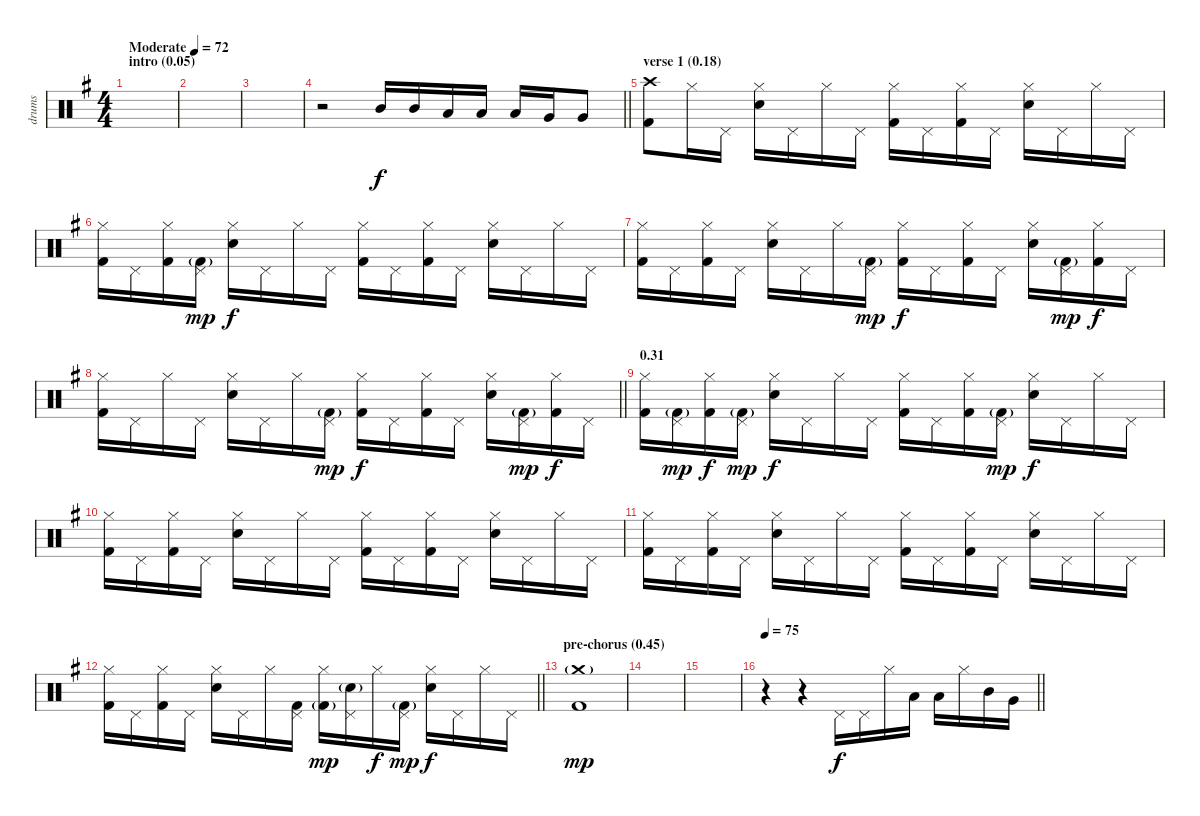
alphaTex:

\track ("drums" "drums") {instrument percussion}
\staff {score}
\articulation defaults
\ts (4 4)
\section ("" "intro (0.05)")
\tempo (72 "Moderate")
\clef neutral
\ks g
|
|
|
\barLineRight lightlight
r.2 "Mid Tom (hit)".16 "Mid Tom (hit)".16 "Low Tom (hit)".16 "Low Tom (hit)".16 "Low Tom (hit)".16 "Very Low Tom (hit)".16 "Very Low Tom (hit)".8 |
\section ("" "verse 1 (0.18)")
("Crash high (hit)" "Kick (hit) 2").8 "Hi-Hat (closed)".16 "Pedal Hi-Hat (hit)".16 ("Hi-Hat (closed)" "Electric Snare (hit)").16 "Pedal Hi-Hat (hit)".16 "Hi-Hat (closed)".16 "Pedal Hi-Hat (hit)".16 ("Hi-Hat (closed)" "Kick (hit) 2").16 "Pedal Hi-Hat (hit)".16 ("Hi-Hat (closed)" "Kick (hit) 2").16 "Pedal Hi-Hat (hit)".16 ("Hi-Hat (closed)" "Electric Snare (hit)").16 "Pedal Hi-Hat (hit)".16 "Hi-Hat (closed)".16 "Pedal Hi-Hat (hit)".16 |
("Hi-Hat (closed)" "Kick (hit) 2").16 "Pedal Hi-Hat (hit)".16 ("Hi-Hat (closed)" "Kick (hit) 2").16 ("Pedal Hi-Hat (hit)" "Kick (hit) 2"{g}).16{dy mp} ("Hi-Hat (closed)" "Electric Snare (hit)").16{dy f} "Pedal Hi-Hat (hit)".16 "Hi-Hat (closed)".16 "Pedal Hi-Hat (hit)".16 ("Hi-Hat (closed)" "Kick (hit) 2").16 "Pedal Hi-Hat (hit)".16 ("Hi-Hat (closed)" "Kick (hit) 2").16 "Pedal Hi-Hat (hit)".16 ("Hi-Hat (closed)" "Electric Snare (hit)").16 "Pedal Hi-Hat (hit)".16 "Hi-Hat (closed)".16 "Pedal Hi-Hat (hit)".16 |
("Hi-Hat (closed)" "Kick (hit) 2").16 "Pedal Hi-Hat (hit)".16 ("Hi-Hat (closed)" "Kick (hit) 2").16 "Pedal Hi-Hat (hit)".16 ("Hi-Hat (closed)" "Electric Snare (hit)").16 "Pedal Hi-Hat (hit)".16 "Hi-Hat (closed)".16 ("Pedal Hi-Hat (hit)" "Kick (hit) 2"{g}).16{dy mp} ("Hi-Hat (closed)" "Kick (hit) 2").16{dy f} "Pedal Hi-Hat (hit)".16 ("Hi-Hat (closed)" "Kick (hit) 2").16 "Pedal Hi-Hat (hit)".16 ("Hi-Hat (closed)" "Electric Snare (hit)").16 ("Pedal Hi-Hat (hit)" "Kick (hit) 2"{g}).16{dy mp} ("Hi-Hat (closed)" "Kick (hit) 2").16{dy f} "Pedal Hi-Hat (hit)".16 |
\barLineRight lightlight
("Hi-Hat (closed)" "Kick (hit) 2").16 "Pedal Hi-Hat (hit)".16 "Hi-Hat (closed)".16 "Pedal Hi-Hat (hit)".16 ("Hi-Hat (closed)" "Electric Snare (hit)").16 "Pedal Hi-Hat (hit)".16 "Hi-Hat (closed)".16 ("Pedal Hi-Hat (hit)" "Kick (hit) 2"{g}).16{dy mp} ("Hi-Hat (closed)" "Kick (hit) 2").16{dy f} "Pedal Hi-Hat (hit)".16 ("Hi-Hat (closed)" "Kick (hit) 2").16 "Pedal Hi-Hat (hit)".16 ("Hi-Hat (closed)" "Electric Snare (hit)").16 ("Pedal Hi-Hat (hit)" "Kick (hit) 2"{g}).16{dy mp} ("Hi-Hat (closed)" "Kick (hit) 2").16{dy f} "Pedal Hi-Hat (hit)".16 |
\section ("" "0.31")
("Hi-Hat (closed)" "Kick (hit) 2").16 ("Pedal Hi-Hat (hit)" "Kick (hit) 2"{g}).16{dy mp} ("Hi-Hat (closed)" "Kick (hit) 2").16{dy f} ("Pedal Hi-Hat (hit)" "Kick (hit) 2"{g}).16{dy mp} ("Hi-Hat (closed)" "Electric Snare (hit)").16{dy f} "Pedal Hi-Hat (hit)".16 "Hi-Hat (closed)".16 "Pedal Hi-Hat (hit)".16 ("Hi-Hat (closed)" "Kick (hit) 2").16 "Pedal Hi-Hat (hit)".16 ("Hi-Hat (closed)" "Kick (hit) 2").16 ("Pedal Hi-Hat (hit)" "Kick (hit) 2"{g}).16{dy mp} ("Hi-Hat (closed)" "Electric Snare (hit)").16{dy f} "Pedal Hi-Hat (hit)".16 "Hi-Hat (closed)".16 "Pedal Hi-Hat (hit)".16 |
("Hi-Hat (closed)" "Kick (hit) 2").16 "Pedal Hi-Hat (hit)".16 ("Hi-Hat (closed)" "Kick (hit) 2").16 "Pedal Hi-Hat (hit)".16 ("Hi-Hat (closed)" "Electric Snare (hit)").16 "Pedal Hi-Hat (hit)".16 "Hi-Hat (closed)".16 "Pedal Hi-Hat (hit)".16 ("Hi-Hat (closed)" "Kick (hit) 2").16 "Pedal Hi-Hat (hit)".16 ("Hi-Hat (closed)" "Kick (hit) 2").16 "Pedal Hi-Hat (hit)".16 ("Hi-Hat (closed)" "Electric Snare (hit)").16 "Pedal Hi-Hat (hit)".16 "Hi-Hat (closed)".16 "Pedal Hi-Hat (hit)".16 |
("Hi-Hat (closed)" "Kick (hit) 2").16 "Pedal Hi-Hat (hit)".16 ("Hi-Hat (closed)" "Kick (hit) 2").16 "Pedal Hi-Hat (hit)".16 ("Hi-Hat (closed)" "Electric Snare (hit)").16 "Pedal Hi-Hat (hit)".16 "Hi-Hat (closed)".16 "Pedal Hi-Hat (hit)".16 ("Hi-Hat (closed)" "Kick (hit) 2").16 "Pedal Hi-Hat (hit)".16 ("Hi-Hat (closed)" "Kick (hit) 2").16 "Pedal Hi-Hat (hit)".16 ("Hi-Hat (closed)" "Electric Snare (hit)").16 "Pedal Hi-Hat (hit)".16 "Hi-Hat (closed)".16 "Pedal Hi-Hat (hit)".16 |
\barLineRight lightlight
("Hi-Hat (closed)" "Kick (hit) 2").16 "Pedal Hi-Hat (hit)".16 ("Hi-Hat (closed)" "Kick (hit) 2").16 "Pedal Hi-Hat (hit)".16 ("Hi-Hat (closed)" "Electric Snare (hit)").16 "Pedal Hi-Hat (hit)".16 "Hi-Hat (closed)".16 ("Pedal Hi-Hat (hit)" "Kick (hit) 2").16 ("Hi-Hat (closed)" "Kick (hit) 2"{g}).16{dy mp} ("Pedal Hi-Hat (hit)" "Electric Snare (hit)"{g}).16 "Hi-Hat (closed)".16{dy f} ("Pedal Hi-Hat (hit)" "Kick (hit) 2"{g}).16{dy mp} ("Hi-Hat (closed)" "Electric Snare (hit)").16{dy f} "Pedal Hi-Hat (hit)".16 "Hi-Hat (closed)".16 "Pedal Hi-Hat (hit)".16 |
\section ("" "pre-chorus (0.45)")
("Crash medium (hit)"{g} "Kick (hit) 2").1{dy mp} |
|
|
\tempo 75
\barLineRight lightlight
r.4 r.4 "Pedal Hi-Hat (hit)".16{dy f} "Pedal Hi-Hat (hit)".16 "Hi-Hat (closed)".16 "Low Tom (hit)".16 "Low Tom (hit)".16 "Hi-Hat (closed)".16 "Mid Tom (hit)".16 "Very Low Tom (hit)".16
